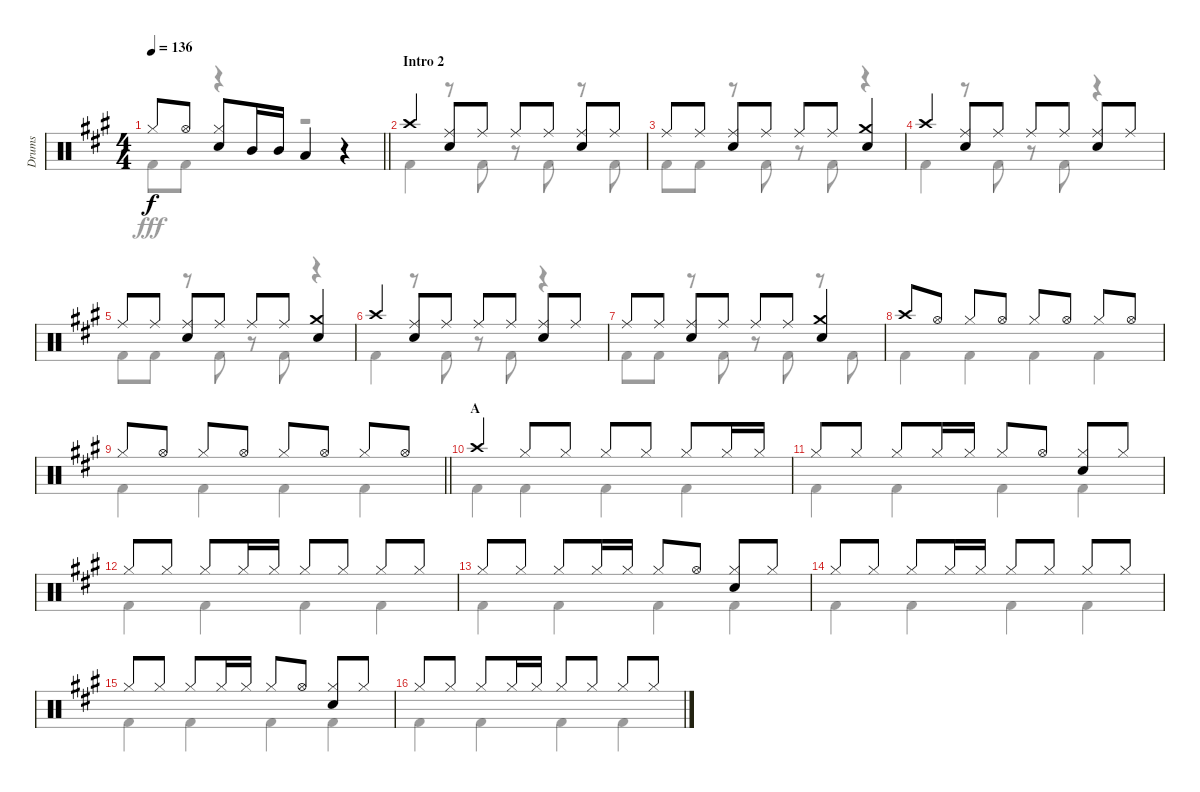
\track ("Drums" "Drums") {instrument percussion}
\staff {score}
\articulation defaults
\voice
\ts (4 4)
\tempo 136
\clef neutral
\barLineRight lightlight
\ks a "Hi-Hat (closed)".8{dy f} "Hi-Hat (open)".8
("Hi-Hat (closed)" "Snare (hit) 2").8 "Mid Tom (hit)".16 "Mid Tom (hit)".16 "Low Tom (hit)".4 r.4 |
\section ("" "Intro 2")
"Crash high (hit)".4 ("Ride (middle)" "Snare (hit) 2").8 "Ride (middle)".8 "Ride (middle)".8 "Ride (middle)".8 ("Ride (middle)" "Snare (hit) 2").8 "Ride (middle)".8 |
"Ride (middle)".8 "Ride (middle)".8 ("Ride (middle)" "Snare (hit) 2").8 "Ride (middle)".8 "Ride (middle)".8 "Ride (middle)".8 ("Crash medium (hit)" "Snare (hit) 2").4 |
"Crash high (hit)".4 ("Ride (middle)" "Snare (hit) 2").8 "Ride (middle)".8 "Ride (middle)".8 "Ride (middle)".8 ("Ride (middle)" "Snare (hit) 2").8 "Ride (middle)".8 |
"Ride (middle)".8 "Ride (middle)".8 ("Ride (middle)" "Snare (hit) 2").8 "Ride (middle)".8 "Ride (middle)".8 "Ride (middle)".8 ("Crash medium (hit)" "Snare (hit) 2").4 |
"Crash high (hit)".4 ("Ride (middle)" "Snare (hit) 2").8 "Ride (middle)".8 "Ride (middle)".8 "Ride (middle)".8 ("Ride (middle)" "Snare (hit) 2").8 "Ride (middle)".8 |
"Ride (middle)".8 "Ride (middle)".8 ("Ride (middle)" "Snare (hit) 2").8 "Ride (middle)".8 "Ride (middle)".8 "Ride (middle)".8 ("Crash medium (hit)" "Snare (hit) 2").4 |
"Crash high (hit)".8 "Hi-Hat (open)".8 "Hi-Hat (closed)".8 "Hi-Hat (open)".8 "Hi-Hat (closed)".8 "Hi-Hat (open)".8 "Hi-Hat (closed)".8 "Hi-Hat (open)".8 |
\barLineRight lightlight "Hi-Hat (closed)".8 "Hi-Hat (open)".8 "Hi-Hat (closed)".8 "Hi-Hat (open)".8 "Hi-Hat (closed)".8 "Hi-Hat (open)".8 "Hi-Hat (closed)".8 "Hi-Hat (open)".8
|
\section ("" "A")
"Crash high (hit)".4 "Hi-Hat (closed)".8 "Hi-Hat (closed)".8 "Hi-Hat (closed)".8 "Hi-Hat (closed)".8 "Hi-Hat (closed)".8 "Hi-Hat (closed)".16 "Hi-Hat (closed)".16 |
"Hi-Hat (closed)".8 "Hi-Hat (closed)".8 "Hi-Hat (closed)".8 "Hi-Hat (closed)".16 "Hi-Hat (closed)".16 "Hi-Hat (closed)".8 "Hi-Hat (open)".8 ("Hi-Hat (closed)" "Snare (hit) 2").8 "Hi-Hat (closed)".8 |
"Hi-Hat (closed)".8 "Hi-Hat (closed)".8 "Hi-Hat (closed)".8 "Hi-Hat (closed)".16 "Hi-Hat (closed)".16 "Hi-Hat (closed)".8 "Hi-Hat (closed)".8 "Hi-Hat (closed)".8 "Hi-Hat (closed)".8 |
"Hi-Hat (closed)".8 "Hi-Hat (closed)".8 "Hi-Hat (closed)".8 "Hi-Hat (closed)".16 "Hi-Hat (closed)".16 "Hi-Hat (closed)".8 "Hi-Hat (open)".8 ("Hi-Hat (closed)" "Snare (hit) 2").8 "Hi-Hat (closed)".8 |
"Hi-Hat (closed)".8 "Hi-Hat (closed)".8 "Hi-Hat (closed)".8 "Hi-Hat (closed)".16 "Hi-Hat (closed)".16 "Hi-Hat (closed)".8 "Hi-Hat (closed)".8 "Hi-Hat (closed)".8 "Hi-Hat (closed)".8 |
"Hi-Hat (closed)".8 "Hi-Hat (closed)".8 "Hi-Hat (closed)".8 "Hi-Hat (closed)".16 "Hi-Hat (closed)".16 "Hi-Hat (closed)".8 "Hi-Hat (open)".8 ("Hi-Hat (closed)" "Snare (hit) 2").8 "Hi-Hat (closed)".8 |
"Hi-Hat (closed)".8 "Hi-Hat (closed)".8 "Hi-Hat (closed)".8 "Hi-Hat (closed)".16 "Hi-Hat (closed)".16 "Hi-Hat (closed)".8 "Hi-Hat (closed)".8 "Hi-Hat (closed)".8 "Hi-Hat (closed)".8
\voice
\clef neutral
\ottava regular
\simile none
\barLineRight lightlight
\ks a "Kick (hit) 2".8{dy fff} "Kick (hit) 2".8
r.4 r.2 |
"Kick (hit) 2".4 r.8 "Kick (hit) 2".8 r.8 "Kick (hit) 2".8 r.8 "Kick (hit) 2".8 |
"Kick (hit) 2".8 "Kick (hit) 2".8 r.8 "Kick (hit) 2".8 r.8 "Kick (hit) 2".8 r.4 |
"Kick (hit) 2".4 r.8 "Kick (hit) 2".8 r.8 "Kick (hit) 2".8 r.4 |
"Kick (hit) 2".8 "Kick (hit) 2".8 r.8 "Kick (hit) 2".8 r.8 "Kick (hit) 2".8 r.4 |
"Kick (hit) 2".4 r.8 "Kick (hit) 2".8 r.8 "Kick (hit) 2".8 r.4 |
"Kick (hit) 2".8 "Kick (hit) 2".8 r.8 "Kick (hit) 2".8 r.8 "Kick (hit) 2".8 r.8 "Kick (hit) 2".8 |
"Kick (hit) 2".4 "Kick (hit) 2".4 "Kick (hit) 2".4 "Kick (hit) 2".4 |
\barLineRight lightlight "Kick (hit) 2".4 "Kick (hit) 2".4 "Kick (hit) 2".4 "Kick (hit) 2".4
|
"Kick (hit) 2".4 "Kick (hit) 2".4 "Kick (hit) 2".4 "Kick (hit) 2".4 |
"Kick (hit) 2".4 "Kick (hit) 2".4 "Kick (hit) 2".4 "Kick (hit) 2".4 |
"Kick (hit) 2".4 "Kick (hit) 2".4 "Kick (hit) 2".4 "Kick (hit) 2".4 |
"Kick (hit) 2".4 "Kick (hit) 2".4 "Kick (hit) 2".4 "Kick (hit) 2".4 |
"Kick (hit) 2".4 "Kick (hit) 2".4 "Kick (hit) 2".4 "Kick (hit) 2".4 |
"Kick (hit) 2".4 "Kick (hit) 2".4 "Kick (hit) 2".4 "Kick (hit) 2".4 |
"Kick (hit) 2".4 "Kick (hit) 2".4 "Kick (hit) 2".4 "Kick (hit) 2".4
